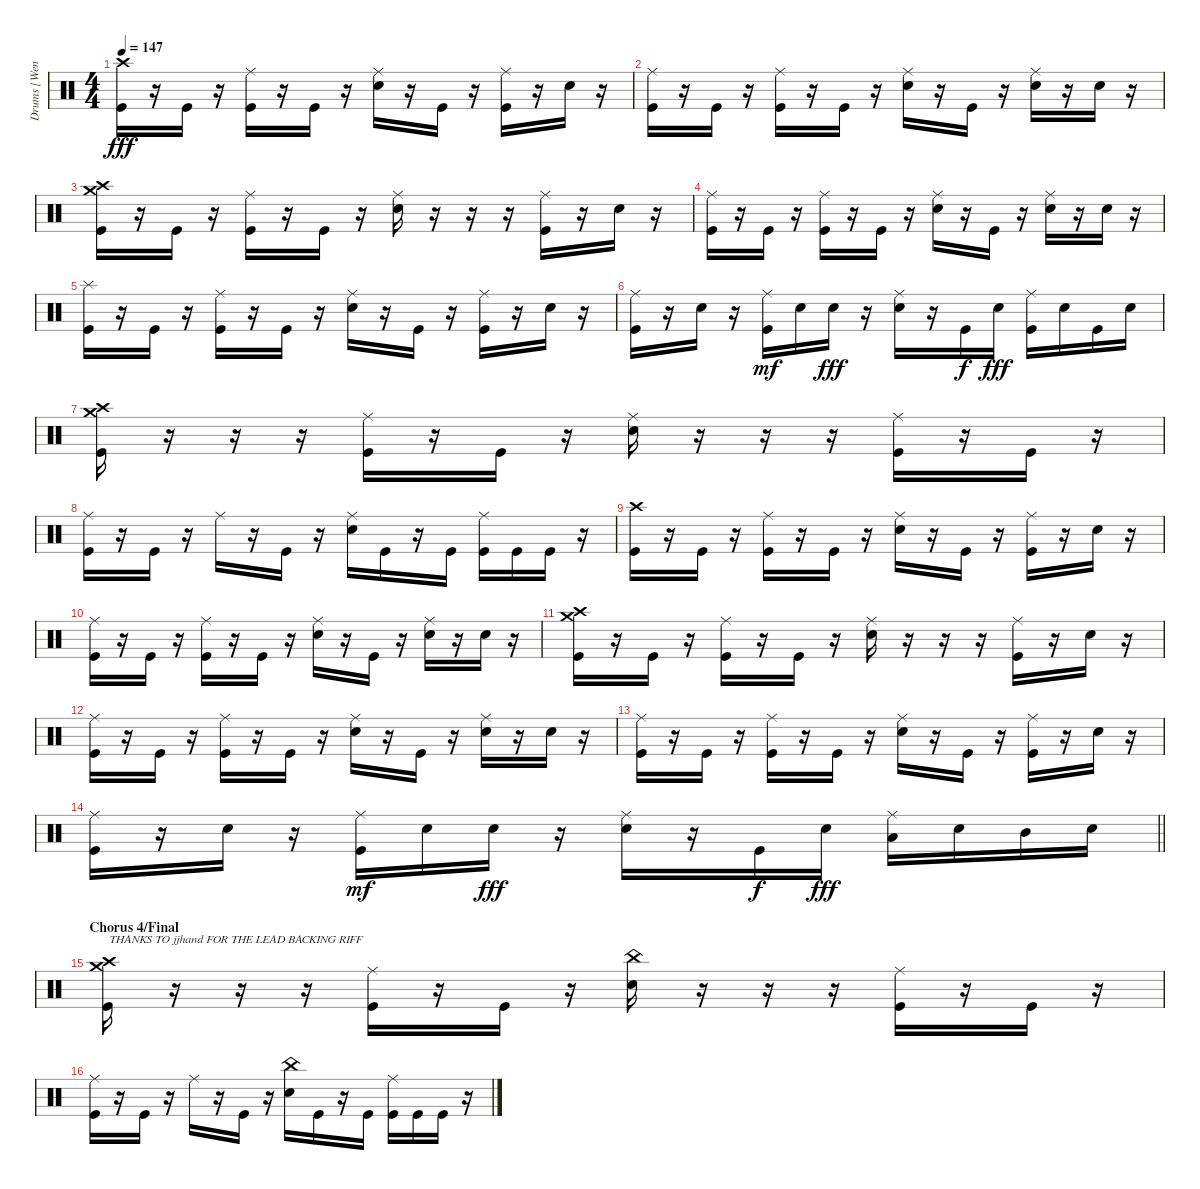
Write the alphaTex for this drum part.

\track ("Drums [Wengren]" "Drums [Wen") {instrument percussion}
\staff {score}
\articulation defaults
\ts (4 4)
\tempo 147
\clef neutral
\ks c
("Crash high (hit)" "Kick (hit)").16{dy fff} r.16 "Kick (hit)".16 r.16 ("Ride (middle)" "Kick (hit)").16 r.16 "Kick (hit)".16 r.16 ("Ride (middle)" "Snare (hit) 2").16 r.16 "Kick (hit)".16 r.16 ("Ride (middle)" "Kick (hit)").16 r.16 "Snare (hit) 2".16 r.16 |
("Ride (middle)" "Kick (hit)").16 r.16 "Kick (hit)".16 r.16 ("Ride (middle)" "Kick (hit)").16 r.16 "Kick (hit)".16 r.16 ("Ride (middle)" "Snare (hit) 2").16 r.16 "Kick (hit)".16 r.16 ("Ride (middle)" "Snare (hit) 2").16 r.16 "Snare (hit) 2".16 r.16 |
("Crash high (hit)" "Crash medium (hit)" "Kick (hit)").16 r.16 "Kick (hit)".16 r.16 ("Ride (middle)" "Kick (hit)").16 r.16 "Kick (hit)".16 r.16 ("Ride (middle)" "Snare (hit) 2").16 r.16 r.16 r.16 ("Ride (middle)" "Kick (hit)").16 r.16 "Snare (hit) 2".16 r.16 |
("Ride (middle)" "Kick (hit)").16 r.16 "Kick (hit)".16 r.16 ("Ride (middle)" "Kick (hit)").16 r.16 "Kick (hit)".16 r.16 ("Ride (middle)" "Snare (hit) 2").16 r.16 "Kick (hit)".16 r.16 ("Ride (middle)" "Snare (hit) 2").16 r.16 "Snare (hit) 2".16 r.16 |
("Splash (hit)" "Kick (hit)").16 r.16 "Kick (hit)".16 r.16 ("Ride (middle)" "Kick (hit)").16 r.16 "Kick (hit)".16 r.16 ("Ride (middle)" "Snare (hit) 2").16 r.16 "Kick (hit)".16 r.16 ("Ride (middle)" "Kick (hit)").16 r.16 "Snare (hit) 2".16 r.16 |
("Ride (middle)" "Kick (hit)").16 r.16 "Snare (hit) 2".16 r.16 ("Ride (middle)" "Kick (hit)").16{dy mf} "Snare (hit) 2".16 "Snare (hit) 2".16{dy fff} r.16 ("Ride (middle)" "Snare (hit) 2").16 r.16 "Kick (hit)".16{dy f} "Snare (hit) 2".16{dy fff} ("Ride (middle)" "Kick (hit)").16 "Snare (hit) 2".16 "Kick (hit)".16 "Snare (hit) 2".16 |
("Crash high (hit)" "Crash medium (hit)" "Kick (hit)").16 r.16 r.16 r.16 ("Ride (middle)" "Kick (hit)").16 r.16 "Kick (hit)".16 r.16 ("Ride (middle)" "Snare (hit) 2").16 r.16 r.16 r.16 ("Ride (middle)" "Kick (hit)").16 r.16 "Kick (hit)".16 r.16 |
("Ride (middle)" "Kick (hit)").16 r.16 "Kick (hit)".16 r.16 "Ride (middle)".16 r.16 "Kick (hit)".16 r.16 ("Ride (middle)" "Snare (hit) 2").16 "Kick (hit)".16 r.16 "Kick (hit)".16 ("Ride (middle)" "Kick (hit)").16 "Kick (hit)".16 "Kick (hit)".16 r.16 |
("Crash high (hit)" "Kick (hit)").16 r.16 "Kick (hit)".16 r.16 ("Ride (middle)" "Kick (hit)").16 r.16 "Kick (hit)".16 r.16 ("Ride (middle)" "Snare (hit) 2").16 r.16 "Kick (hit)".16 r.16 ("Ride (middle)" "Kick (hit)").16 r.16 "Snare (hit) 2".16 r.16 |
("Ride (middle)" "Kick (hit)").16 r.16 "Kick (hit)".16 r.16 ("Ride (middle)" "Kick (hit)").16 r.16 "Kick (hit)".16 r.16 ("Ride (middle)" "Snare (hit) 2").16 r.16 "Kick (hit)".16 r.16 ("Ride (middle)" "Snare (hit) 2").16 r.16 "Snare (hit) 2".16 r.16 |
("Crash high (hit)" "Crash medium (hit)" "Kick (hit)").16 r.16 "Kick (hit)".16 r.16 ("Ride (middle)" "Kick (hit)").16 r.16 "Kick (hit)".16 r.16 ("Ride (middle)" "Snare (hit) 2").16 r.16 r.16 r.16 ("Ride (middle)" "Kick (hit)").16 r.16 "Snare (hit) 2".16 r.16 |
("Ride (middle)" "Kick (hit)").16 r.16 "Kick (hit)".16 r.16 ("Ride (middle)" "Kick (hit)").16 r.16 "Kick (hit)".16 r.16 ("Ride (middle)" "Snare (hit) 2").16 r.16 "Kick (hit)".16 r.16 ("Ride (middle)" "Snare (hit) 2").16 r.16 "Snare (hit) 2".16 r.16 |
("Ride (middle)" "Kick (hit)").16 r.16 "Kick (hit)".16 r.16 ("Ride (middle)" "Kick (hit)").16 r.16 "Kick (hit)".16 r.16 ("Ride (middle)" "Snare (hit) 2").16 r.16 "Kick (hit)".16 r.16 ("Ride (middle)" "Kick (hit)").16 r.16 "Snare (hit) 2".16 r.16 |
\barLineRight lightlight
("Ride (middle)" "Kick (hit)").16 r.16 "Snare (hit) 2".16 r.16 ("Ride (middle)" "Kick (hit)").16{dy mf} "Snare (hit) 2".16 "Snare (hit) 2".16{dy fff} r.16 ("Ride (middle)" "Snare (hit) 2").16 r.16 "Kick (hit)".16{dy f} "Snare (hit) 2".16{dy fff} ("Ride (middle)" "Low Tom (hit)").16 "Snare (hit) 2".16 "Mid Tom (hit)".16 "Snare (hit) 2".16 |
\section ("" "Chorus 4/Final")
("Crash high (hit)" "Crash medium (hit)" "Kick (hit)").16{txt "THANKS TO jjhand FOR THE LEAD BACKING RIFF"} r.16 r.16 r.16 ("Ride (middle)" "Kick (hit)").16 r.16 "Kick (hit)".16 r.16 ("China (hit)" "Snare (hit) 2").16 r.16 r.16 r.16 ("Ride (middle)" "Kick (hit)").16 r.16 "Kick (hit)".16 r.16 |
("Ride (middle)" "Kick (hit)").16 r.16 "Kick (hit)".16 r.16 "Ride (middle)".16 r.16 "Kick (hit)".16 r.16 ("China (hit)" "Snare (hit) 2").16 "Kick (hit)".16 r.16 "Kick (hit)".16 ("Ride (middle)" "Kick (hit)").16 "Kick (hit)".16 "Kick (hit)".16 r.16
